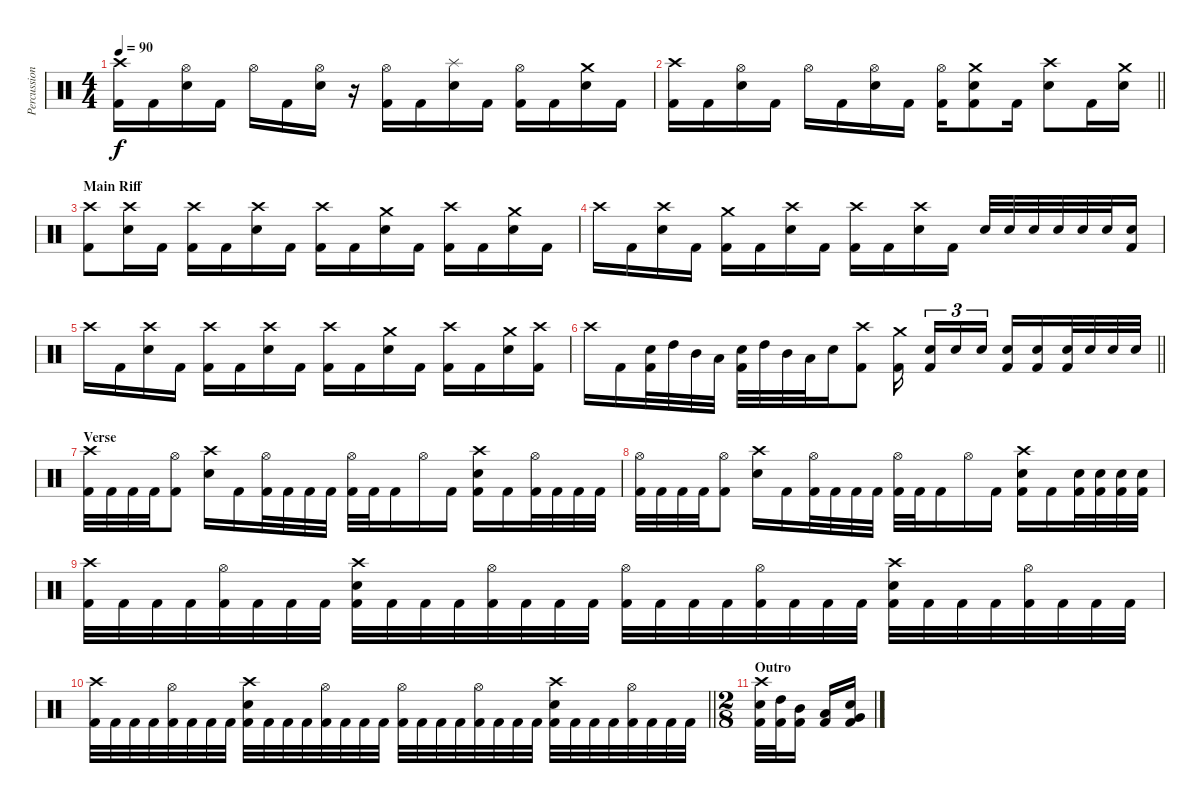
\track ("Percussion" "Percussion") {instrument percussion}
\staff {score}
\articulation defaults
\ts (4 4)
\tempo 90
\clef neutral
\ks c
("Crash high (hit)" "Kick (hit) 2").16{dy f} "Kick (hit) 2".16 ("Hi-Hat (open)" "Electric Snare (hit)").16 "Kick (hit) 2".16 "Hi-Hat (open)".16 "Kick (hit) 2".16 ("Hi-Hat (open)" "Electric Snare (hit)").16 r.16 ("Hi-Hat (open)" "Kick (hit) 2").16 "Kick (hit) 2".16 ("Splash (hit)" "Electric Snare (hit)").16 "Kick (hit) 2".16 ("Hi-Hat (open)" "Kick (hit) 2").16 "Kick (hit) 2".16 ("Crash medium (hit)" "Electric Snare (hit)").16 "Kick (hit) 2".16 |
\barLineRight lightlight
("Crash high (hit)" "Kick (hit) 2").16 "Kick (hit) 2".16 ("Hi-Hat (open)" "Electric Snare (hit)").16 "Kick (hit) 2".16 "Hi-Hat (open)".16 "Kick (hit) 2".16 ("Hi-Hat (open)" "Electric Snare (hit)").16 "Kick (hit) 2".16 ("Hi-Hat (open)" "Kick (hit) 2").16 ("Crash medium (hit)" "Electric Snare (hit)" "Kick (hit) 2").8 "Kick (hit) 2".16 ("Crash high (hit)" "Electric Snare (hit)").8 "Kick (hit) 2".16 ("Crash medium (hit)" "Electric Snare (hit)").16 |
\section ("" "Main Riff")
("Crash high (hit)" "Kick (hit) 2").8 ("Crash high (hit)" "Electric Snare (hit)").16 "Kick (hit) 2".16 ("Crash high (hit)" "Kick (hit) 2").16 "Kick (hit) 2".16 ("Crash high (hit)" "Electric Snare (hit)").16 "Kick (hit) 2".16 ("Crash high (hit)" "Kick (hit) 2").16 "Kick (hit) 2".16 ("Crash medium (hit)" "Electric Snare (hit)").16 "Kick (hit) 2".16 ("Crash high (hit)" "Kick (hit) 2").16 "Kick (hit) 2".16 ("Crash medium (hit)" "Electric Snare (hit)").16 "Kick (hit) 2".16 |
"Crash high (hit)".16 "Kick (hit) 2".16 ("Crash high (hit)" "Electric Snare (hit)").16 "Kick (hit) 2".16 ("Crash medium (hit)" "Kick (hit) 2").16 "Kick (hit) 2".16 ("Crash high (hit)" "Electric Snare (hit)").16 "Kick (hit) 2".16 ("Crash high (hit)" "Kick (hit) 2").16 "Kick (hit) 2".16 ("Crash high (hit)" "Electric Snare (hit)").16 "Kick (hit) 2".16 "Electric Snare (hit)".32 "Electric Snare (hit)".32 "Electric Snare (hit)".32 "Electric Snare (hit)".32 "Electric Snare (hit)".32 "Electric Snare (hit)".32 ("Electric Snare (hit)" "Kick (hit) 2").16 |
"Crash high (hit)".16 "Kick (hit) 2".16 ("Crash high (hit)" "Electric Snare (hit)").16 "Kick (hit) 2".16 ("Crash high (hit)" "Kick (hit) 2").16 "Kick (hit) 2".16 ("Crash high (hit)" "Electric Snare (hit)").16 "Kick (hit) 2".16 ("Crash high (hit)" "Kick (hit) 2").16 "Kick (hit) 2".16 ("Crash medium (hit)" "Electric Snare (hit)").16 "Kick (hit) 2".16 ("Crash high (hit)" "Kick (hit) 2").16 "Kick (hit) 2".16 ("Crash medium (hit)" "Electric Snare (hit)").16 ("Crash high (hit)" "Kick (hit) 2").16 |
\barLineRight lightlight "Crash high (hit)".16 "Kick (hit) 2".16
("Electric Snare (hit)" "Kick (hit) 2").32 "High Tom (hit)".32 "Mid Tom (hit)".32 "Low Tom (hit)".32 ("Electric Snare (hit)" "Kick (hit) 2").32 "High Tom (hit)".32 "Mid Tom (hit)".32 "Low Tom (hit)".32 "Electric Snare (hit)".16 ("Crash high (hit)" "Kick (hit) 2").8 ("Crash medium (hit)" "Kick (hit) 2").16 ("Electric Snare (hit)" "Kick (hit) 2").16{tu (3 2)} "Electric Snare (hit)".16{tu (3 2)} "Electric Snare (hit)".16{tu (3 2)} ("Electric Snare (hit)" "Kick (hit) 2").16 ("Electric Snare (hit)" "Kick (hit) 2").16 ("Electric Snare (hit)" "Kick (hit) 2").32 "Electric Snare (hit)".32 "Electric Snare (hit)".32 "Electric Snare (hit)".32 |
\section ("" "Verse")
("Crash high (hit)" "Kick (hit) 2").32 "Kick (hit) 2".32 "Kick (hit) 2".32 "Kick (hit) 2".32 ("Hi-Hat (open)" "Kick (hit) 2").8 ("Crash high (hit)" "Electric Snare (hit)").16 "Kick (hit) 2".16 ("Hi-Hat (open)" "Kick (hit) 2").32 "Kick (hit) 2".32 "Kick (hit) 2".32 "Kick (hit) 2".32 ("Hi-Hat (open)" "Kick (hit) 2").32 "Kick (hit) 2".32 "Kick (hit) 2".16 "Hi-Hat (open)".16 "Kick (hit) 2".16 ("Crash high (hit)" "Electric Snare (hit)" "Kick (hit) 2").16 "Kick (hit) 2".16 ("Hi-Hat (open)" "Kick (hit) 2").32 "Kick (hit) 2".32 "Kick (hit) 2".32 "Kick (hit) 2".32 |
("Hi-Hat (open)" "Kick (hit) 2").32 "Kick (hit) 2".32 "Kick (hit) 2".32 "Kick (hit) 2".32 ("Hi-Hat (open)" "Kick (hit) 2").8 ("Crash high (hit)" "Electric Snare (hit)").16 "Kick (hit) 2".16 ("Hi-Hat (open)" "Kick (hit) 2").32 "Kick (hit) 2".32 "Kick (hit) 2".32 "Kick (hit) 2".32 ("Hi-Hat (open)" "Kick (hit) 2").32 "Kick (hit) 2".32 "Kick (hit) 2".16 "Hi-Hat (open)".16 "Kick (hit) 2".16 ("Crash high (hit)" "Electric Snare (hit)" "Kick (hit) 2").16 "Kick (hit) 2".16 ("Electric Snare (hit)" "Kick (hit) 2").32 ("Electric Snare (hit)" "Kick (hit) 2").32 ("Electric Snare (hit)" "Kick (hit) 2").32 ("Electric Snare (hit)" "Kick (hit) 2").32 |
("Crash high (hit)" "Kick (hit) 2").32 "Kick (hit) 2".32 "Kick (hit) 2".32 "Kick (hit) 2".32 ("Hi-Hat (open)" "Kick (hit) 2").32 "Kick (hit) 2".32 "Kick (hit) 2".32 "Kick (hit) 2".32 ("Crash high (hit)" "Electric Snare (hit)" "Kick (hit) 2").32 "Kick (hit) 2".32 "Kick (hit) 2".32 "Kick (hit) 2".32 ("Hi-Hat (open)" "Kick (hit) 2").32 "Kick (hit) 2".32 "Kick (hit) 2".32 "Kick (hit) 2".32 ("Hi-Hat (open)" "Kick (hit) 2").32 "Kick (hit) 2".32 "Kick (hit) 2".32 "Kick (hit) 2".32 ("Hi-Hat (open)" "Kick (hit) 2").32 "Kick (hit) 2".32 "Kick (hit) 2".32 "Kick (hit) 2".32 ("Crash high (hit)" "Electric Snare (hit)" "Kick (hit) 2").32 "Kick (hit) 2".32 "Kick (hit) 2".32 "Kick (hit) 2".32 ("Hi-Hat (open)" "Kick (hit) 2").32 "Kick (hit) 2".32 "Kick (hit) 2".32 "Kick (hit) 2".32 |
\barLineRight lightlight
("Crash high (hit)" "Kick (hit) 2").32 "Kick (hit) 2".32 "Kick (hit) 2".32 "Kick (hit) 2".32 ("Hi-Hat (open)" "Kick (hit) 2").32 "Kick (hit) 2".32 "Kick (hit) 2".32 "Kick (hit) 2".32 ("Crash high (hit)" "Electric Snare (hit)" "Kick (hit) 2").32 "Kick (hit) 2".32 "Kick (hit) 2".32 "Kick (hit) 2".32 ("Hi-Hat (open)" "Kick (hit) 2").32 "Kick (hit) 2".32 "Kick (hit) 2".32 "Kick (hit) 2".32 ("Hi-Hat (open)" "Kick (hit) 2").32 "Kick (hit) 2".32 "Kick (hit) 2".32 "Kick (hit) 2".32 ("Hi-Hat (open)" "Kick (hit) 2").32 "Kick (hit) 2".32 "Kick (hit) 2".32 "Kick (hit) 2".32 ("Crash high (hit)" "Electric Snare (hit)" "Kick (hit) 2").32 "Kick (hit) 2".32 "Kick (hit) 2".32 "Kick (hit) 2".32 ("Hi-Hat (open)" "Kick (hit) 2").32 "Kick (hit) 2".32 "Kick (hit) 2".32 "Kick (hit) 2".32 |
\ts (2 8)
\section ("" "Outro")
("Crash high (hit)" "Electric Snare (hit)" "Kick (hit) 2").32 ("High Tom (hit)" "Kick (hit) 2").32 ("Mid Tom (hit)" "Kick (hit) 2").16 ("Low Tom (hit)" "Kick (hit) 2").16 ("Very Low Tom (hit)" "Electric Snare (hit)" "Kick (hit) 2").16
